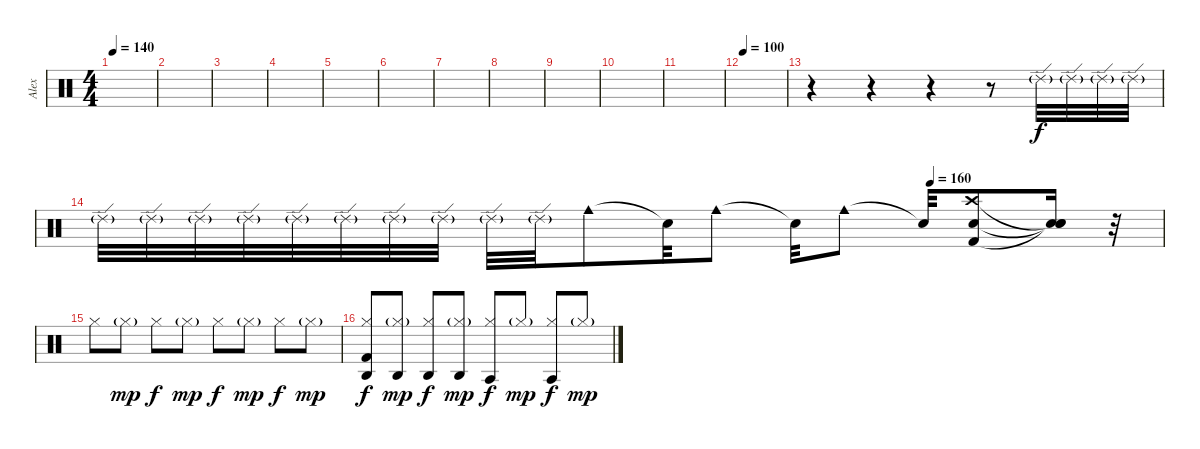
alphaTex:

\track ("Alex" "Alex") {instrument percussion}
\staff {score}
\articulation defaults
\ts (4 4)
\tempo 140
\clef neutral
\ks c
|
|
|
|
|
|
|
|
|
|
|
\tempo 100
|
r.4 r.4 r.4 r.8 "Ride (edge) 2"{g}.32 "Ride (edge) 2"{g}.32 "Ride (edge) 2"{g}.32 "Ride (edge) 2"{g}.32 |
\tempo (160 0.78125)
"Ride (edge) 2"{g}.32 "Ride (edge) 2"{g}.32 "Ride (edge) 2"{g}.32 "Ride (edge) 2"{g}.32 "Ride (edge) 2"{g}.32 "Ride (edge) 2"{g}.32 "Ride (edge) 2"{g}.32 "Ride (edge) 2"{g}.32 "Ride (edge) 2"{g}.32 "Ride (edge) 2"{g}.32 "Cowbell medium (hit)".8{dy f} "Snare (hit)"{t}.32 "Cowbell medium (hit)".8 "Snare (hit)"{t}.32 "Cowbell medium (hit)".8 "Snare (hit)"{t}.32 ("Snare (hit) 2" "Crash high (hit)" "Kick (hit) 2").8 ("Snare (hit)"{t} "Snare (hit)"{t} "Snare (hit)"{t}).16 r.32 |
"Hi-Hat (closed)".8 "Hi-Hat (closed)"{g}.8{dy mp} "Hi-Hat (closed)".8{dy f} "Hi-Hat (closed)"{g}.8{dy mp} "Hi-Hat (closed)".8{dy f} "Hi-Hat (closed)"{g}.8{dy mp} "Hi-Hat (closed)".8{dy f} "Hi-Hat (closed)"{g}.8{dy mp} |
("Kick (hit) 2" "Hi-Hat (closed)" "Agogo high (hit)").8{dy f} ("Hi-Hat (closed)"{g} "Agogo high (hit)").8{dy mp} ("Hi-Hat (closed)" "Agogo high (hit)").8{dy f} ("Hi-Hat (closed)"{g} "Agogo high (hit)").8{dy mp} ("Hi-Hat (closed)" "Agogo tow (hit)").8{dy f} "Hi-Hat (closed)"{g}.8{dy mp} ("Hi-Hat (closed)" "Agogo tow (hit)").8{dy f} "Hi-Hat (closed)"{g}.8{dy mp}
